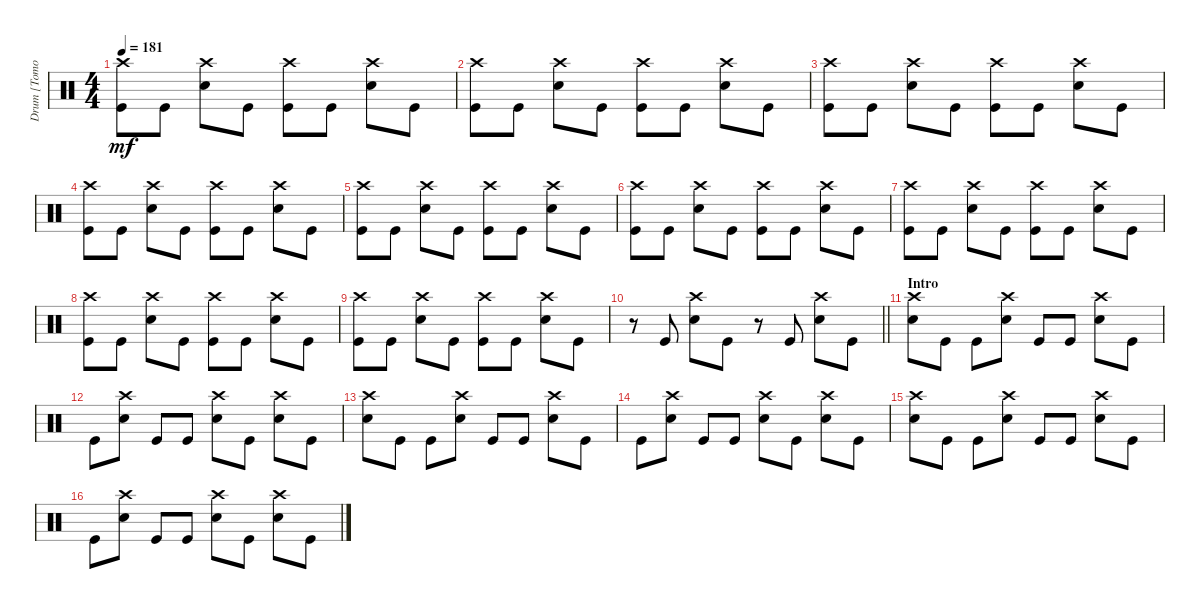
\track ("Drum [Tomoya]" "Drum [Tomo") {instrument percussion}
\staff {score}
\articulation defaults
\ts (4 4)
\tempo 181
\clef neutral
\ks c
("Kick (hit)" "Crash high (hit)").8{dy mf} "Kick (hit)".8 ("Snare (hit) 2" "Crash high (hit)").8 "Kick (hit)".8 ("Kick (hit)" "Crash high (hit)").8 "Kick (hit)".8 ("Snare (hit) 2" "Crash high (hit)").8 "Kick (hit)".8 |
("Kick (hit)" "Crash high (hit)").8 "Kick (hit)".8 ("Snare (hit) 2" "Crash high (hit)").8 "Kick (hit)".8 ("Kick (hit)" "Crash high (hit)").8 "Kick (hit)".8 ("Snare (hit) 2" "Crash high (hit)").8 "Kick (hit)".8 |
("Kick (hit)" "Crash high (hit)").8 "Kick (hit)".8 ("Snare (hit) 2" "Crash high (hit)").8 "Kick (hit)".8 ("Kick (hit)" "Crash high (hit)").8 "Kick (hit)".8 ("Snare (hit) 2" "Crash high (hit)").8 "Kick (hit)".8 |
("Kick (hit)" "Crash high (hit)").8 "Kick (hit)".8 ("Snare (hit) 2" "Crash high (hit)").8 "Kick (hit)".8 ("Kick (hit)" "Crash high (hit)").8 "Kick (hit)".8 ("Snare (hit) 2" "Crash high (hit)").8 "Kick (hit)".8 |
("Kick (hit)" "Crash high (hit)").8 "Kick (hit)".8 ("Snare (hit) 2" "Crash high (hit)").8 "Kick (hit)".8 ("Kick (hit)" "Crash high (hit)").8 "Kick (hit)".8 ("Snare (hit) 2" "Crash high (hit)").8 "Kick (hit)".8 |
("Kick (hit)" "Crash high (hit)").8 "Kick (hit)".8 ("Snare (hit) 2" "Crash high (hit)").8 "Kick (hit)".8 ("Kick (hit)" "Crash high (hit)").8 "Kick (hit)".8 ("Snare (hit) 2" "Crash high (hit)").8 "Kick (hit)".8 |
("Kick (hit)" "Crash high (hit)").8 "Kick (hit)".8 ("Snare (hit) 2" "Crash high (hit)").8 "Kick (hit)".8 ("Kick (hit)" "Crash high (hit)").8 "Kick (hit)".8 ("Snare (hit) 2" "Crash high (hit)").8 "Kick (hit)".8 |
("Kick (hit)" "Crash high (hit)").8 "Kick (hit)".8 ("Snare (hit) 2" "Crash high (hit)").8 "Kick (hit)".8 ("Kick (hit)" "Crash high (hit)").8 "Kick (hit)".8 ("Snare (hit) 2" "Crash high (hit)").8 "Kick (hit)".8 |
("Kick (hit)" "Crash high (hit)").8 "Kick (hit)".8 ("Snare (hit) 2" "Crash high (hit)").8 "Kick (hit)".8 ("Kick (hit)" "Crash high (hit)").8 "Kick (hit)".8 ("Snare (hit) 2" "Crash high (hit)").8 "Kick (hit)".8 |
\barLineRight lightlight
r.8 "Kick (hit)".8 ("Snare (hit) 2" "Crash high (hit)").8 "Kick (hit)".8 r.8 "Kick (hit)".8 ("Snare (hit) 2" "Crash high (hit)").8 "Kick (hit)".8 |
\section ("" "Intro")
("Snare (hit) 2" "Crash high (hit)").8 "Kick (hit)".8 "Kick (hit)".8 ("Snare (hit) 2" "Crash high (hit)").8 "Kick (hit)".8 "Kick (hit)".8 ("Snare (hit) 2" "Crash high (hit)").8 "Kick (hit)".8 |
"Kick (hit)".8 ("Snare (hit) 2" "Crash high (hit)").8 "Kick (hit)".8 "Kick (hit)".8 ("Snare (hit) 2" "Crash high (hit)").8 "Kick (hit)".8 ("Snare (hit) 2" "Crash high (hit)").8 "Kick (hit)".8 |
("Snare (hit) 2" "Crash high (hit)").8 "Kick (hit)".8 "Kick (hit)".8 ("Snare (hit) 2" "Crash high (hit)").8 "Kick (hit)".8 "Kick (hit)".8 ("Snare (hit) 2" "Crash high (hit)").8 "Kick (hit)".8 |
"Kick (hit)".8 ("Snare (hit) 2" "Crash high (hit)").8 "Kick (hit)".8 "Kick (hit)".8 ("Snare (hit) 2" "Crash high (hit)").8 "Kick (hit)".8 ("Snare (hit) 2" "Crash high (hit)").8 "Kick (hit)".8 |
("Snare (hit) 2" "Crash high (hit)").8 "Kick (hit)".8 "Kick (hit)".8 ("Snare (hit) 2" "Crash high (hit)").8 "Kick (hit)".8 "Kick (hit)".8 ("Snare (hit) 2" "Crash high (hit)").8 "Kick (hit)".8 |
"Kick (hit)".8 ("Snare (hit) 2" "Crash high (hit)").8 "Kick (hit)".8 "Kick (hit)".8 ("Snare (hit) 2" "Crash high (hit)").8 "Kick (hit)".8 ("Snare (hit) 2" "Crash high (hit)").8 "Kick (hit)".8
